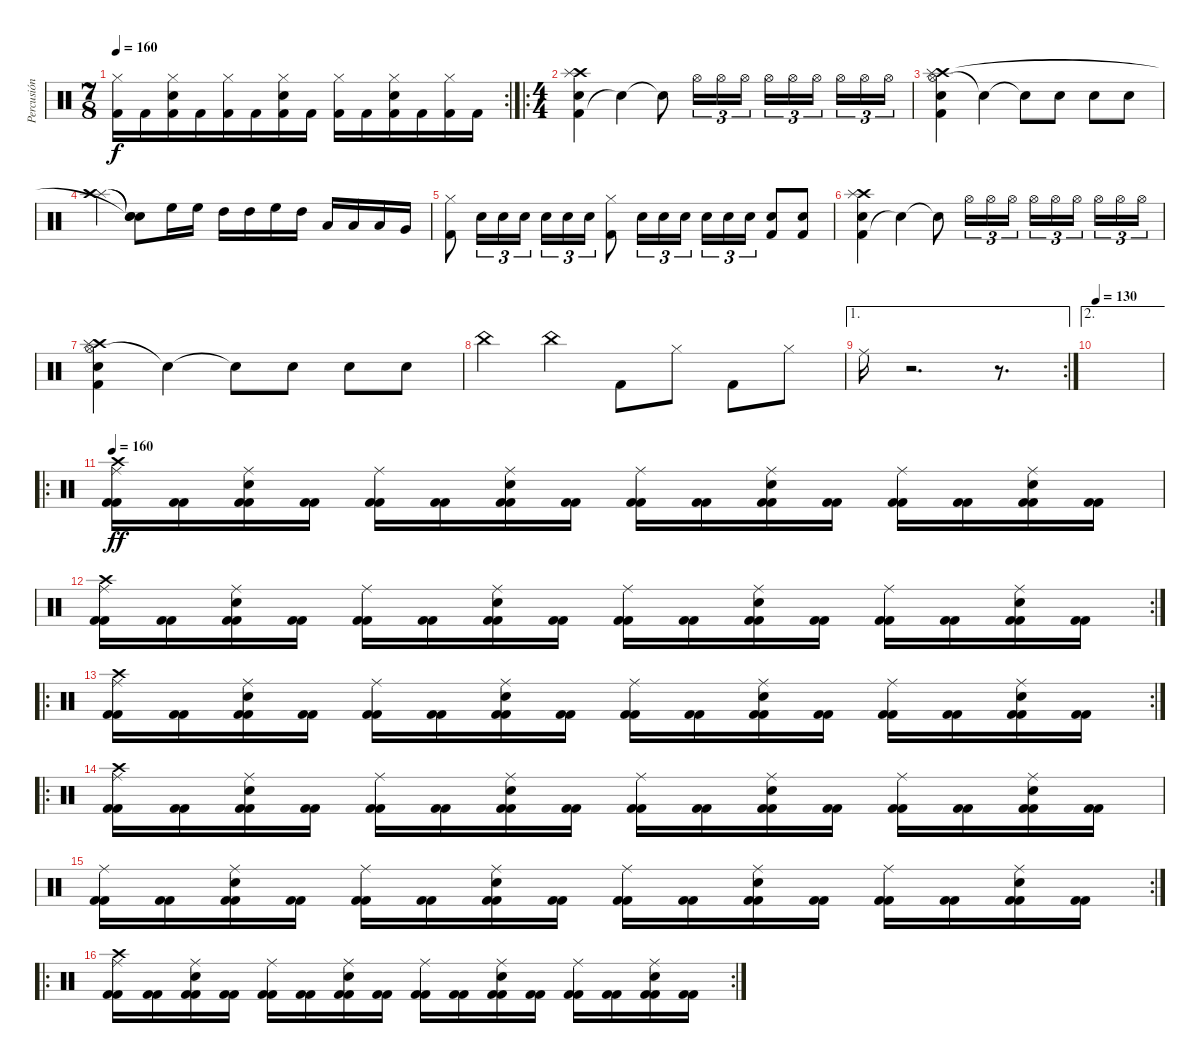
\track ("Percusión" "Percusión") {instrument percussion}
\staff {score}
\articulation defaults
\rc 2
\ts (7 8)
\tempo 160
\clef neutral
\ks c
("Kick (hit) 2" "Hi-Hat (closed)").16{dy f} "Kick (hit) 2".16 ("Kick (hit) 2" "Snare (hit) 2" "Hi-Hat (closed)").16 "Kick (hit) 2".16 ("Kick (hit) 2" "Hi-Hat (closed)").16 "Kick (hit) 2".16 ("Kick (hit) 2" "Snare (hit) 2" "Hi-Hat (closed)").16 "Kick (hit) 2".16 ("Kick (hit) 2" "Hi-Hat (closed)").16 "Kick (hit) 2".16 ("Kick (hit) 2" "Snare (hit) 2" "Hi-Hat (closed)").16 "Kick (hit) 2".16 ("Kick (hit) 2" "Hi-Hat (closed)").16 "Kick (hit) 2".16 |
\ro
\ts (4 4)
("Kick (hit) 2" "Crash high (hit)" "Splash (hit)" "Snare (hit) 2").4 "Snare (hit)"{t}.4 "Snare (hit)"{t}.8 "Hi-Hat (open)".16{tu (3 2)} "Hi-Hat (open)".16{tu (3 2)} "Hi-Hat (open)".16{tu (3 2)} "Hi-Hat (open)".16{tu (3 2)} "Hi-Hat (open)".16{tu (3 2)} "Hi-Hat (open)".16{tu (3 2)} "Hi-Hat (open)".16{tu (3 2)} "Hi-Hat (open)".16{tu (3 2)} "Hi-Hat (open)".16{tu (3 2)} |
("Hi-Hat (open)" "Crash high (hit)" "Splash (hit)" "Snare (hit) 2" "Kick (hit) 2").4 "Snare (hit)"{t}.4 "Snare (hit)"{t}.8 "Snare (hit) 2".8 "Snare (hit) 2".8 "Snare (hit) 2".8 |
("Splash (hit)" "Crash high (hit)").4 ("Snare (hit)"{t} "Snare (hit)"{t} "Snare (hit)"{t}).8 "High Floor Tom (hit)".16 "High Floor Tom (hit)".16 "High Tom (hit)".16 "High Tom (hit)".16 "High Floor Tom (hit)".16 "High Tom (hit)".16 "Low Tom (hit)".16 "Low Tom (hit)".16 "Low Tom (hit)".16 "Very Low Tom (hit)".16 |
("Hi-Hat (closed)" "Kick (hit) 2").8 "Snare (hit) 2".16{tu (3 2)} "Snare (hit) 2".16{tu (3 2)} "Snare (hit) 2".16{tu (3 2)} "Snare (hit) 2".16{tu (3 2)} "Snare (hit) 2".16{tu (3 2)} "Snare (hit) 2".16{tu (3 2)} ("Hi-Hat (closed)" "Kick (hit) 2").8 "Snare (hit) 2".16{tu (3 2)} "Snare (hit) 2".16{tu (3 2)} "Snare (hit) 2".16{tu (3 2)} "Snare (hit) 2".16{tu (3 2)} "Snare (hit) 2".16{tu (3 2)} "Snare (hit) 2".16{tu (3 2)} ("Snare (hit) 2" "Kick (hit) 2").8 ("Snare (hit) 2" "Kick (hit) 2").8 |
("Kick (hit) 2" "Crash high (hit)" "Splash (hit)" "Snare (hit) 2").4 "Snare (hit)"{t}.4 "Snare (hit)"{t}.8 "Hi-Hat (open)".16{tu (3 2)} "Hi-Hat (open)".16{tu (3 2)} "Hi-Hat (open)".16{tu (3 2)} "Hi-Hat (open)".16{tu (3 2)} "Hi-Hat (open)".16{tu (3 2)} "Hi-Hat (open)".16{tu (3 2)} "Hi-Hat (open)".16{tu (3 2)} "Hi-Hat (open)".16{tu (3 2)} "Hi-Hat (open)".16{tu (3 2)} |
("Hi-Hat (open)" "Crash high (hit)" "Splash (hit)" "Snare (hit) 2" "Kick (hit) 2").4 "Snare (hit)"{t}.4 "Snare (hit)"{t}.8 "Snare (hit) 2".8 "Snare (hit) 2".8 "Snare (hit) 2".8 |
"China (hit)".4 "China (hit)".4 "Kick (hit) 2".8 "Hi-Hat (closed)".8 "Kick (hit) 2".8 "Hi-Hat (closed)".8 |
\ae 1
\rc 2 "Ride (middle)".16
r.2{d} r.8{d} |
\ae 2
\tempo 130
|
\ro
\tempo 160
("Kick (hit) 2" "Kick (hit) 2" "Ride (middle)" "Crash high (hit)").16{dy ff} ("Kick (hit) 2" "Kick (hit) 2").16 ("Kick (hit) 2" "Kick (hit) 2" "Ride (middle)" "Electric Snare (hit)").16 ("Kick (hit) 2" "Kick (hit) 2").16 ("Kick (hit) 2" "Kick (hit) 2" "Ride (middle)").16 ("Kick (hit) 2" "Kick (hit) 2").16 ("Kick (hit) 2" "Kick (hit) 2" "Ride (middle)" "Electric Snare (hit)").16 ("Kick (hit) 2" "Kick (hit) 2").16 ("Kick (hit) 2" "Kick (hit) 2" "Ride (middle)").16 ("Kick (hit) 2" "Kick (hit) 2").16 ("Kick (hit) 2" "Kick (hit) 2" "Ride (middle)" "Electric Snare (hit)").16 ("Kick (hit) 2" "Kick (hit) 2").16 ("Kick (hit) 2" "Kick (hit) 2" "Ride (middle)").16 ("Kick (hit) 2" "Kick (hit) 2").16 ("Kick (hit) 2" "Kick (hit) 2" "Ride (middle)" "Electric Snare (hit)").16 ("Kick (hit) 2" "Kick (hit) 2").16 |
\rc 2
("Kick (hit) 2" "Kick (hit) 2" "Ride (middle)" "Crash high (hit)").16 ("Kick (hit) 2" "Kick (hit) 2").16 ("Kick (hit) 2" "Kick (hit) 2" "Ride (middle)" "Electric Snare (hit)").16 ("Kick (hit) 2" "Kick (hit) 2").16 ("Kick (hit) 2" "Kick (hit) 2" "Ride (middle)").16 ("Kick (hit) 2" "Kick (hit) 2").16 ("Kick (hit) 2" "Kick (hit) 2" "Ride (middle)" "Electric Snare (hit)").16 ("Kick (hit) 2" "Kick (hit) 2").16 ("Kick (hit) 2" "Kick (hit) 2" "Ride (middle)").16 ("Kick (hit) 2" "Kick (hit) 2").16 ("Kick (hit) 2" "Kick (hit) 2" "Ride (middle)" "Electric Snare (hit)").16 ("Kick (hit) 2" "Kick (hit) 2").16 ("Kick (hit) 2" "Kick (hit) 2" "Ride (middle)").16 ("Kick (hit) 2" "Kick (hit) 2").16 ("Kick (hit) 2" "Kick (hit) 2" "Ride (middle)" "Electric Snare (hit)").16 ("Kick (hit) 2" "Kick (hit) 2").16 |
\ro
\rc 2
("Kick (hit) 2" "Kick (hit) 2" "Ride (middle)" "Crash high (hit)").16 ("Kick (hit) 2" "Kick (hit) 2").16 ("Kick (hit) 2" "Kick (hit) 2" "Ride (middle)" "Electric Snare (hit)").16 ("Kick (hit) 2" "Kick (hit) 2").16 ("Kick (hit) 2" "Kick (hit) 2" "Ride (middle)").16 ("Kick (hit) 2" "Kick (hit) 2").16 ("Kick (hit) 2" "Kick (hit) 2" "Ride (middle)" "Electric Snare (hit)").16 ("Kick (hit) 2" "Kick (hit) 2").16 ("Kick (hit) 2" "Kick (hit) 2" "Ride (middle)").16 ("Kick (hit) 2" "Kick (hit) 2").16 ("Kick (hit) 2" "Kick (hit) 2" "Ride (middle)" "Electric Snare (hit)").16 ("Kick (hit) 2" "Kick (hit) 2").16 ("Kick (hit) 2" "Kick (hit) 2" "Ride (middle)").16 ("Kick (hit) 2" "Kick (hit) 2").16 ("Kick (hit) 2" "Kick (hit) 2" "Ride (middle)" "Electric Snare (hit)").16 ("Kick (hit) 2" "Kick (hit) 2").16 |
\ro
("Kick (hit) 2" "Kick (hit) 2" "Ride (middle)" "Crash high (hit)").16 ("Kick (hit) 2" "Kick (hit) 2").16 ("Kick (hit) 2" "Kick (hit) 2" "Ride (middle)" "Electric Snare (hit)").16 ("Kick (hit) 2" "Kick (hit) 2").16 ("Kick (hit) 2" "Kick (hit) 2" "Ride (middle)").16 ("Kick (hit) 2" "Kick (hit) 2").16 ("Kick (hit) 2" "Kick (hit) 2" "Ride (middle)" "Electric Snare (hit)").16 ("Kick (hit) 2" "Kick (hit) 2").16 ("Kick (hit) 2" "Kick (hit) 2" "Ride (middle)").16 ("Kick (hit) 2" "Kick (hit) 2").16 ("Kick (hit) 2" "Kick (hit) 2" "Ride (middle)" "Electric Snare (hit)").16 ("Kick (hit) 2" "Kick (hit) 2").16 ("Kick (hit) 2" "Kick (hit) 2" "Ride (middle)").16 ("Kick (hit) 2" "Kick (hit) 2").16 ("Kick (hit) 2" "Kick (hit) 2" "Ride (middle)" "Electric Snare (hit)").16 ("Kick (hit) 2" "Kick (hit) 2").16 |
\rc 2
("Kick (hit) 2" "Kick (hit) 2" "Ride (middle)").16 ("Kick (hit) 2" "Kick (hit) 2").16 ("Kick (hit) 2" "Kick (hit) 2" "Ride (middle)" "Electric Snare (hit)").16 ("Kick (hit) 2" "Kick (hit) 2").16 ("Kick (hit) 2" "Kick (hit) 2" "Ride (middle)").16 ("Kick (hit) 2" "Kick (hit) 2").16 ("Kick (hit) 2" "Kick (hit) 2" "Ride (middle)" "Electric Snare (hit)").16 ("Kick (hit) 2" "Kick (hit) 2").16 ("Kick (hit) 2" "Kick (hit) 2" "Ride (middle)").16 ("Kick (hit) 2" "Kick (hit) 2").16 ("Kick (hit) 2" "Kick (hit) 2" "Ride (middle)" "Electric Snare (hit)").16 ("Kick (hit) 2" "Kick (hit) 2").16 ("Kick (hit) 2" "Kick (hit) 2" "Ride (middle)").16 ("Kick (hit) 2" "Kick (hit) 2").16 ("Kick (hit) 2" "Kick (hit) 2" "Ride (middle)" "Electric Snare (hit)").16 ("Kick (hit) 2" "Kick (hit) 2").16 |
\ro
\rc 2
("Kick (hit) 2" "Kick (hit) 2" "Ride (middle)" "Crash high (hit)").16 ("Kick (hit) 2" "Kick (hit) 2").16 ("Kick (hit) 2" "Kick (hit) 2" "Ride (middle)" "Electric Snare (hit)").16 ("Kick (hit) 2" "Kick (hit) 2").16 ("Kick (hit) 2" "Kick (hit) 2" "Ride (middle)").16 ("Kick (hit) 2" "Kick (hit) 2").16 ("Kick (hit) 2" "Kick (hit) 2" "Ride (middle)" "Electric Snare (hit)").16 ("Kick (hit) 2" "Kick (hit) 2").16 ("Kick (hit) 2" "Kick (hit) 2" "Ride (middle)").16 ("Kick (hit) 2" "Kick (hit) 2").16 ("Kick (hit) 2" "Kick (hit) 2" "Ride (middle)" "Electric Snare (hit)").16 ("Kick (hit) 2" "Kick (hit) 2").16 ("Kick (hit) 2" "Kick (hit) 2" "Ride (middle)").16 ("Kick (hit) 2" "Kick (hit) 2").16 ("Kick (hit) 2" "Kick (hit) 2" "Ride (middle)" "Electric Snare (hit)").16 ("Kick (hit) 2" "Kick (hit) 2").16
